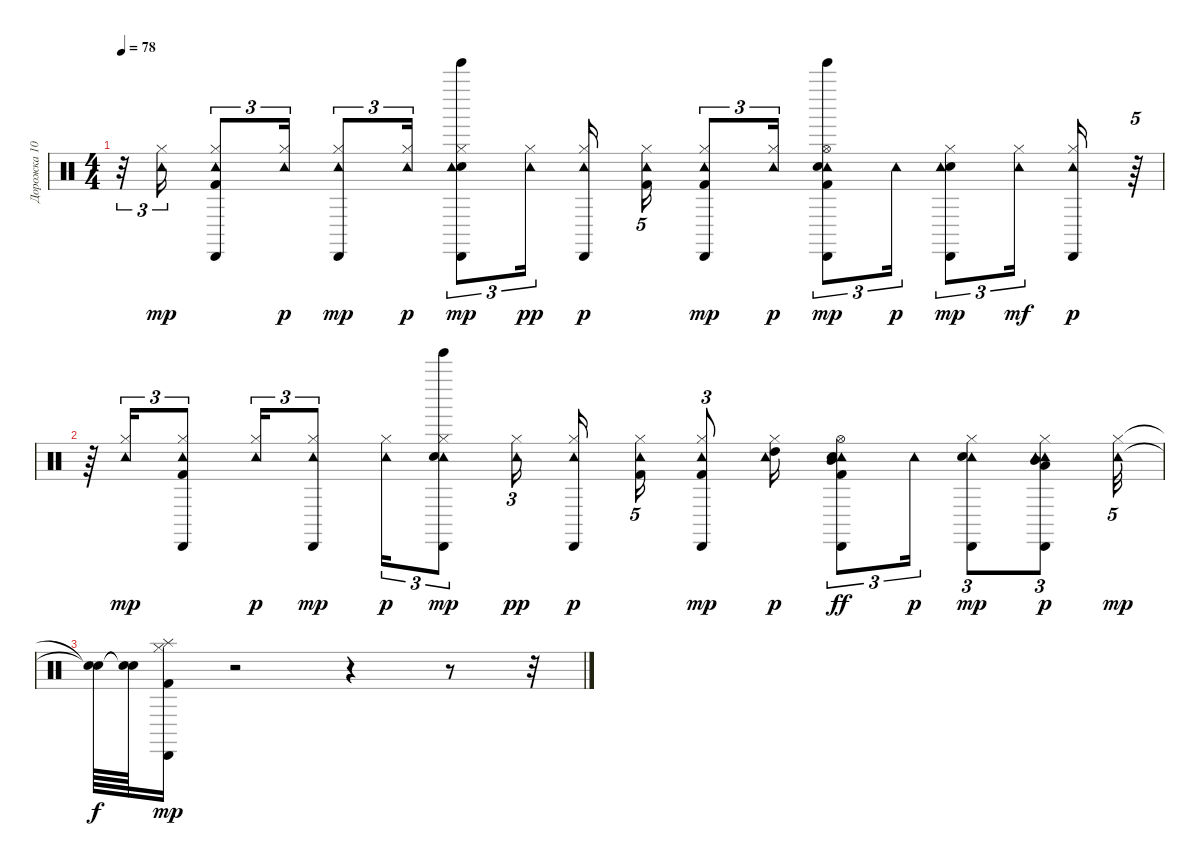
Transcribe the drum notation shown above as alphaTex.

\track ("Дорожка 10" "Дорожка 10") {instrument percussion}
\staff
\articulation defaults
\ts (4 4)
\tempo 78
\clef neutral
\ks c
r.32{tu (3 2) dy p} ("Hi-Hat (closed)" "Tambourine (hit)").16{tu (3 2) dy mp} ("Kick (hit) 2" "Hi-Hat (closed)" "Cabasa (hit)" "Tambourine (hit)").8{tu (3 2)} ("Hi-Hat (closed)" "Tambourine (hit)").16{tu (3 2) dy p} ("Hi-Hat (closed)" "Cabasa (hit)" "Tambourine (hit)").8{tu (3 2) dy mp} ("Hi-Hat (closed)" "Tambourine (hit)").16{tu (3 2) dy p} ("Snare (hit) 2" "Hi-Hat (closed)" "Cabasa (hit)" "Tambourine (hit)" "Tinkle Bell (hit)").8{tu (3 2) dy mp} ("Hi-Hat (closed)" "Tambourine (hit)").16{tu (3 2) dy pp} ("Hi-Hat (closed)" "Cabasa (hit)" "Tambourine (hit)").16{dy p} ("Kick (hit) 2" "Hi-Hat (closed)" "Tambourine (hit)").16{tu (5 4)} ("Kick (hit) 2" "Hi-Hat (closed)" "Cabasa (hit)" "Tambourine (hit)").8{tu (3 2) dy mp} ("Hi-Hat (closed)" "Tambourine (hit)").16{tu (3 2) dy p} ("Kick (hit) 2" "Hi-Hat (open)" "Cabasa (hit)" "Tambourine (hit)" "Electric Snare (hit)" "Tinkle Bell (hit)").8{tu (3 2) dy mp} "Tambourine (hit)".16{tu (3 2) dy p} ("Snare (hit) 2" "Hi-Hat (closed)" "Cabasa (hit)" "Tambourine (hit)").8{tu (3 2) dy mp} ("Hi-Hat (closed)" "Tambourine (hit)").16{tu (3 2) dy mf} ("Hi-Hat (closed)" "Cabasa (hit)" "Tambourine (hit)").16{dy p} r.64{tu (5 4)} |
r.64 ("Hi-Hat (closed)" "Tambourine (hit)").16{tu (3 2) dy mp} ("Cabasa (hit)" "Tambourine (hit)" "Kick (hit) 2" "Hi-Hat (closed)").8{tu (3 2)} ("Tambourine (hit)" "Hi-Hat (closed)").16{tu (3 2) dy p} ("Cabasa (hit)" "Tambourine (hit)" "Hi-Hat (closed)").8{tu (3 2) dy mp} ("Tambourine (hit)" "Hi-Hat (closed)").16{tu (3 2) dy p} ("Cabasa (hit)" "Tambourine (hit)" "Snare (hit) 2" "Hi-Hat (closed)" "Tinkle Bell (hit)").8{tu (3 2) dy mp} ("Tambourine (hit)" "Hi-Hat (closed)").16{tu (3 2) dy pp beam splitsecondary} ("Cabasa (hit)" "Tambourine (hit)" "Hi-Hat (closed)").16{dy p} ("Tambourine (hit)" "Kick (hit) 2" "Hi-Hat (closed)").16{tu (5 4)} ("Cabasa (hit)" "Tambourine (hit)" "Kick (hit) 2" "Hi-Hat (closed)").8{tu (3 2) dy mp} ("Tambourine (hit)" "Hi-Hat (closed)" "High Tom (hit)").16{dy p} ("Mid Tom (hit)" "Cabasa (hit)" "Tambourine (hit)" "Electric Snare (hit)" "Kick (hit) 2" "Hi-Hat (open)").8{tu (3 2) dy ff} "Tambourine (hit)".16{tu (3 2) dy p} ("Cabasa (hit)" "Tambourine (hit)" "Snare (hit) 2" "Hi-Hat (closed)").8{tu (3 2) dy mp} ("Tambourine (hit)" "Hi-Hat (closed)" "Mid Tom (hit)" "Low Tom (hit)" "Cabasa (hit)" "Tambourine (hit)").8{tu (3 2) dy p} ("Tambourine (hit)" "Hi-Hat (closed)").32{tu (5 4) dy mp} |
("Snare (hit)"{t} "Snare (hit)"{t}).64{dy f} ("Snare (hit)"{t} "Snare (hit)"{t}).64 ("Kick (hit) 2" "Splash (hit)" "Hi-Hat (closed)" "Cabasa (hit)").16{dy mp} r.2 r.4 r.8 r.32
